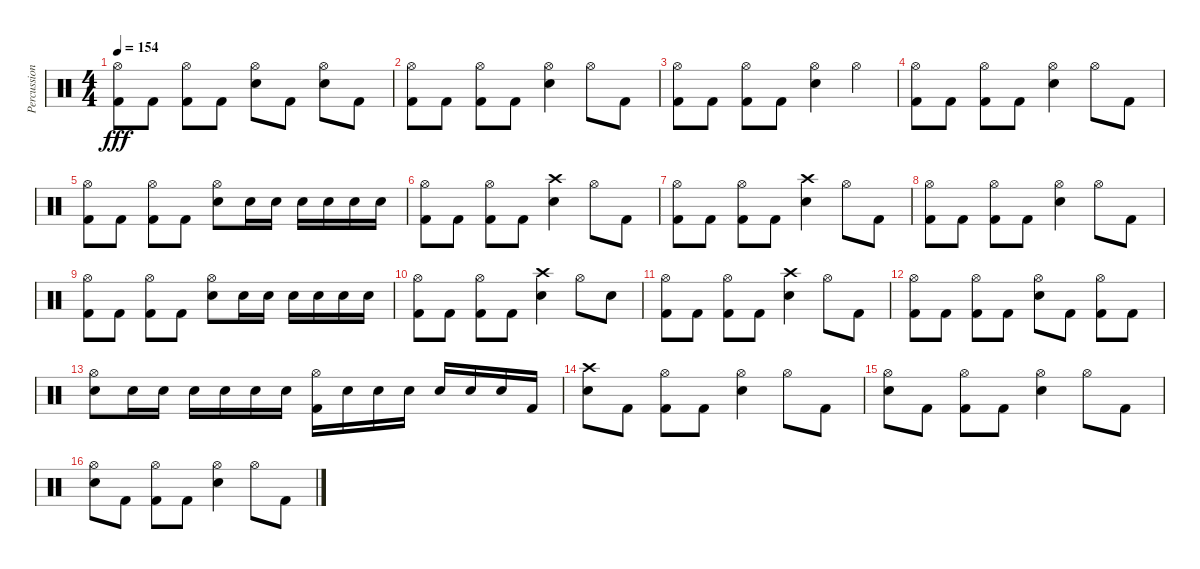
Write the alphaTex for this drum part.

\track ("Percussion" "Percussion") {instrument percussion}
\staff {score}
\articulation defaults
\ts (4 4)
\tempo 154
\clef neutral
\ks c
("Hi-Hat (open)" "Kick (hit) 2").8{dy fff} "Kick (hit) 2".8 ("Hi-Hat (open)" "Kick (hit) 2").8 "Kick (hit) 2".8 ("Hi-Hat (open)" "Electric Snare (hit)").8 "Kick (hit) 2".8 ("Hi-Hat (open)" "Electric Snare (hit)").8 "Kick (hit) 2".8 |
("Hi-Hat (open)" "Kick (hit) 2").8 "Kick (hit) 2".8 ("Hi-Hat (open)" "Kick (hit) 2").8 "Kick (hit) 2".8 ("Hi-Hat (open)" "Electric Snare (hit)").4 "Hi-Hat (open)".8 "Kick (hit) 2".8 |
("Hi-Hat (open)" "Kick (hit) 2").8 "Kick (hit) 2".8 ("Hi-Hat (open)" "Kick (hit) 2").8 "Kick (hit) 2".8 ("Hi-Hat (open)" "Electric Snare (hit)").4 "Hi-Hat (open)".4 |
("Hi-Hat (open)" "Kick (hit) 2").8 "Kick (hit) 2".8 ("Hi-Hat (open)" "Kick (hit) 2").8 "Kick (hit) 2".8 ("Hi-Hat (open)" "Electric Snare (hit)").4 "Hi-Hat (open)".8 "Kick (hit) 2".8 |
("Hi-Hat (open)" "Kick (hit) 2").8 "Kick (hit) 2".8 ("Hi-Hat (open)" "Kick (hit) 2").8 "Kick (hit) 2".8 ("Hi-Hat (open)" "Electric Snare (hit)").8 "Electric Snare (hit)".16 "Electric Snare (hit)".16 "Electric Snare (hit)".16 "Electric Snare (hit)".16 "Electric Snare (hit)".16 "Electric Snare (hit)".16 |
("Hi-Hat (open)" "Kick (hit) 2").8 "Kick (hit) 2".8 ("Hi-Hat (open)" "Kick (hit) 2").8 "Kick (hit) 2".8 ("Crash high (hit)" "Electric Snare (hit)").4 "Hi-Hat (open)".8 "Kick (hit) 2".8 |
("Hi-Hat (open)" "Kick (hit) 2").8 "Kick (hit) 2".8 ("Hi-Hat (open)" "Kick (hit) 2").8 "Kick (hit) 2".8 ("Crash high (hit)" "Electric Snare (hit)").4 "Hi-Hat (open)".8 "Kick (hit) 2".8 |
("Hi-Hat (open)" "Kick (hit) 2").8 "Kick (hit) 2".8 ("Hi-Hat (open)" "Kick (hit) 2").8 "Kick (hit) 2".8 ("Hi-Hat (open)" "Electric Snare (hit)").4 "Hi-Hat (open)".8 "Kick (hit) 2".8 |
("Hi-Hat (open)" "Kick (hit) 2").8 "Kick (hit) 2".8 ("Hi-Hat (open)" "Kick (hit) 2").8 "Kick (hit) 2".8 ("Hi-Hat (open)" "Electric Snare (hit)").8 "Electric Snare (hit)".16 "Electric Snare (hit)".16 "Electric Snare (hit)".16 "Electric Snare (hit)".16 "Electric Snare (hit)".16 "Electric Snare (hit)".16 |
("Hi-Hat (open)" "Kick (hit) 2").8 "Kick (hit) 2".8 ("Hi-Hat (open)" "Kick (hit) 2").8 "Kick (hit) 2".8 ("Crash high (hit)" "Electric Snare (hit)").4 "Hi-Hat (open)".8 "Electric Snare (hit)".8 |
("Hi-Hat (open)" "Kick (hit) 2").8 "Kick (hit) 2".8 ("Hi-Hat (open)" "Kick (hit) 2").8 "Kick (hit) 2".8 ("Crash high (hit)" "Electric Snare (hit)").4 "Hi-Hat (open)".8 "Kick (hit) 2".8 |
("Hi-Hat (open)" "Kick (hit) 2").8 "Kick (hit) 2".8 ("Hi-Hat (open)" "Kick (hit) 2").8 "Kick (hit) 2".8 ("Hi-Hat (open)" "Electric Snare (hit)").8 "Kick (hit) 2".8 ("Hi-Hat (open)" "Kick (hit) 2").8 "Kick (hit) 2".8 |
("Hi-Hat (open)" "Electric Snare (hit)").8 "Electric Snare (hit)".16 "Electric Snare (hit)".16 "Electric Snare (hit)".16 "Electric Snare (hit)".16 "Electric Snare (hit)".16 "Electric Snare (hit)".16 ("Hi-Hat (open)" "Kick (hit) 2").16 "Electric Snare (hit)".16 "Electric Snare (hit)".16 "Electric Snare (hit)".16 "Electric Snare (hit)".16 "Electric Snare (hit)".16 "Electric Snare (hit)".16 "Kick (hit) 2".16 |
("Crash high (hit)" "Electric Snare (hit)").8 "Kick (hit) 2".8 ("Hi-Hat (open)" "Kick (hit) 2").8 "Kick (hit) 2".8 ("Hi-Hat (open)" "Electric Snare (hit)").4 "Hi-Hat (open)".8 "Kick (hit) 2".8 |
("Hi-Hat (open)" "Electric Snare (hit)").8 "Kick (hit) 2".8 ("Hi-Hat (open)" "Kick (hit) 2").8 "Kick (hit) 2".8 ("Hi-Hat (open)" "Electric Snare (hit)").4 "Hi-Hat (open)".8 "Kick (hit) 2".8 |
("Hi-Hat (open)" "Electric Snare (hit)").8 "Kick (hit) 2".8 ("Hi-Hat (open)" "Kick (hit) 2").8 "Kick (hit) 2".8 ("Hi-Hat (open)" "Electric Snare (hit)").4 "Hi-Hat (open)".8 "Kick (hit) 2".8
